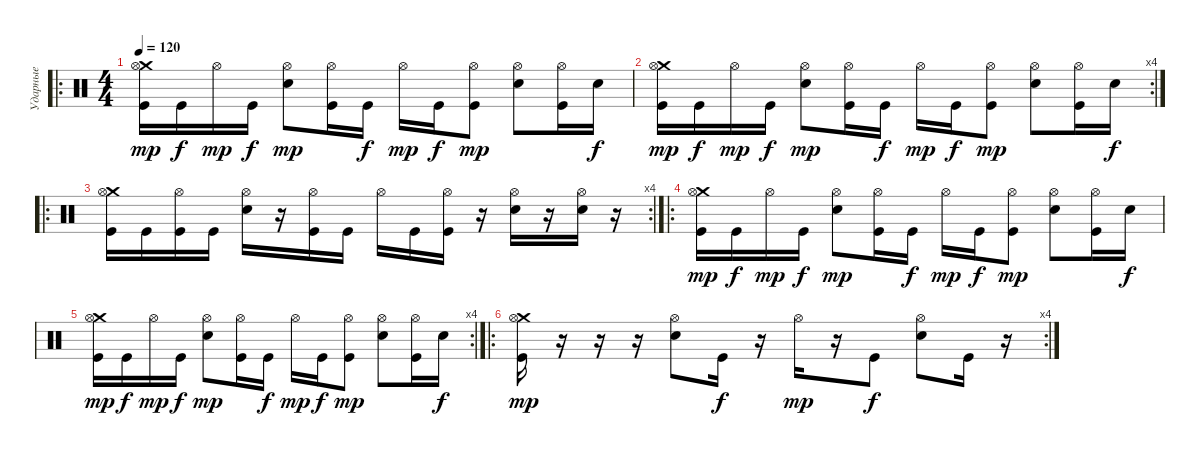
\track ("Ударные" "Ударные") {instrument percussion}
\staff {score}
\articulation defaults
\ro
\ts (4 4)
\tempo 120
\clef neutral
\ks c
("Crash medium (hit)" "Hi-Hat (open)" "Kick (hit)").16{dy mp} "Kick (hit)".16{dy f} "Hi-Hat (open)".16{dy mp} "Kick (hit)".16{dy f} ("Hi-Hat (open)" "Electric Snare (hit)").8{dy mp} ("Hi-Hat (open)" "Kick (hit)").16 "Kick (hit)".16{dy f} "Hi-Hat (open)".16{dy mp} "Kick (hit)".16{dy f} ("Hi-Hat (open)" "Kick (hit)").8{dy mp} ("Hi-Hat (open)" "Electric Snare (hit)").8 ("Hi-Hat (open)" "Kick (hit)").16 "Electric Snare (hit)".16{dy f} |
\rc 4
("Crash medium (hit)" "Hi-Hat (open)" "Kick (hit)").16{dy mp} "Kick (hit)".16{dy f} "Hi-Hat (open)".16{dy mp} "Kick (hit)".16{dy f} ("Hi-Hat (open)" "Electric Snare (hit)").8{dy mp} ("Hi-Hat (open)" "Kick (hit)").16 "Kick (hit)".16{dy f} "Hi-Hat (open)".16{dy mp} "Kick (hit)".16{dy f} ("Hi-Hat (open)" "Kick (hit)").8{dy mp} ("Hi-Hat (open)" "Electric Snare (hit)").8 ("Hi-Hat (open)" "Kick (hit)").16 "Electric Snare (hit)".16{dy f} |
\ro
\rc 4
("Crash medium (hit)" "Hi-Hat (open)" "Kick (hit)").16 "Kick (hit)".16 ("Hi-Hat (open)" "Kick (hit)").16 "Kick (hit)".16 ("Hi-Hat (open)" "Electric Snare (hit)").16 r.16 ("Hi-Hat (open)" "Kick (hit)").16 "Kick (hit)".16 "Hi-Hat (open)".16 "Kick (hit)".16 ("Hi-Hat (open)" "Kick (hit)").16 r.16 ("Hi-Hat (open)" "Electric Snare (hit)").16 r.16 ("Hi-Hat (open)" "Electric Snare (hit)").16 r.16 |
\ro
("Crash medium (hit)" "Hi-Hat (open)" "Kick (hit)").16{dy mp} "Kick (hit)".16{dy f} "Hi-Hat (open)".16{dy mp} "Kick (hit)".16{dy f} ("Hi-Hat (open)" "Electric Snare (hit)").8{dy mp} ("Hi-Hat (open)" "Kick (hit)").16 "Kick (hit)".16{dy f} "Hi-Hat (open)".16{dy mp} "Kick (hit)".16{dy f} ("Hi-Hat (open)" "Kick (hit)").8{dy mp} ("Hi-Hat (open)" "Electric Snare (hit)").8 ("Hi-Hat (open)" "Kick (hit)").16 "Electric Snare (hit)".16{dy f} |
\rc 4
("Crash medium (hit)" "Hi-Hat (open)" "Kick (hit)").16{dy mp} "Kick (hit)".16{dy f} "Hi-Hat (open)".16{dy mp} "Kick (hit)".16{dy f} ("Hi-Hat (open)" "Electric Snare (hit)").8{dy mp} ("Hi-Hat (open)" "Kick (hit)").16 "Kick (hit)".16{dy f} "Hi-Hat (open)".16{dy mp} "Kick (hit)".16{dy f} ("Hi-Hat (open)" "Kick (hit)").8{dy mp} ("Hi-Hat (open)" "Electric Snare (hit)").8 ("Hi-Hat (open)" "Kick (hit)").16 "Electric Snare (hit)".16{dy f} |
\ro
\rc 4
("Crash medium (hit)" "Hi-Hat (open)" "Kick (hit)").16{dy mp} r.16 r.16 r.16 ("Hi-Hat (open)" "Electric Snare (hit)").8 "Kick (hit)".16{dy f} r.16 "Hi-Hat (open)".16{dy mp} r.16 "Kick (hit)".8{dy f} ("Hi-Hat (open)" "Electric Snare (hit)").8 "Kick (hit)".16 r.16
